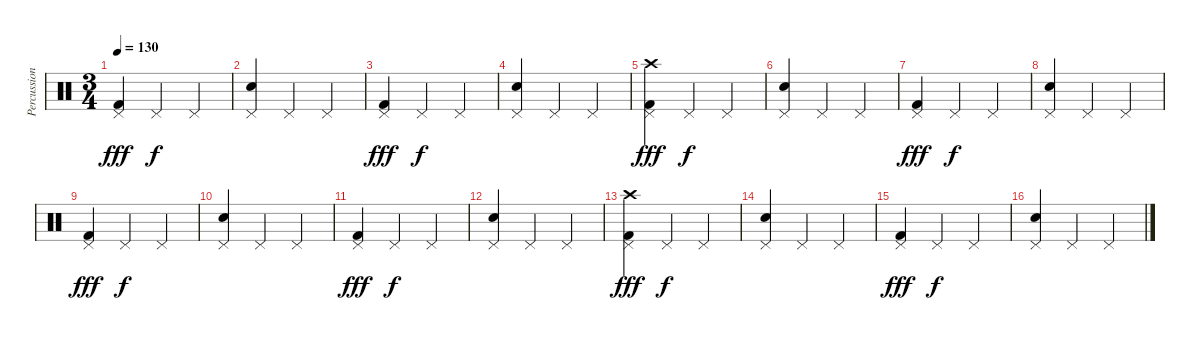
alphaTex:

\track ("Percussion" "Percussion") {instrument percussion}
\staff {score}
\articulation defaults
\ts (3 4)
\tempo 130
\clef neutral
\ks c
("Pedal Hi-Hat (hit)" "Kick (hit) 2").4{dy fff} "Pedal Hi-Hat (hit)".4{dy f} "Pedal Hi-Hat (hit)".4 |
("Pedal Hi-Hat (hit)" "Electric Snare (hit)").4 "Pedal Hi-Hat (hit)".4 "Pedal Hi-Hat (hit)".4 |
("Pedal Hi-Hat (hit)" "Kick (hit) 2").4{dy fff} "Pedal Hi-Hat (hit)".4{dy f} "Pedal Hi-Hat (hit)".4 |
("Pedal Hi-Hat (hit)" "Electric Snare (hit)").4 "Pedal Hi-Hat (hit)".4 "Pedal Hi-Hat (hit)".4 |
("Crash high (hit)" "Pedal Hi-Hat (hit)" "Kick (hit) 2").4{dy fff} "Pedal Hi-Hat (hit)".4{dy f} "Pedal Hi-Hat (hit)".4 |
("Pedal Hi-Hat (hit)" "Electric Snare (hit)").4 "Pedal Hi-Hat (hit)".4 "Pedal Hi-Hat (hit)".4 |
("Pedal Hi-Hat (hit)" "Kick (hit) 2").4{dy fff} "Pedal Hi-Hat (hit)".4{dy f} "Pedal Hi-Hat (hit)".4 |
("Pedal Hi-Hat (hit)" "Electric Snare (hit)").4 "Pedal Hi-Hat (hit)".4 "Pedal Hi-Hat (hit)".4 |
("Pedal Hi-Hat (hit)" "Kick (hit) 2").4{dy fff} "Pedal Hi-Hat (hit)".4{dy f} "Pedal Hi-Hat (hit)".4 |
("Pedal Hi-Hat (hit)" "Electric Snare (hit)").4 "Pedal Hi-Hat (hit)".4 "Pedal Hi-Hat (hit)".4 |
("Pedal Hi-Hat (hit)" "Kick (hit) 2").4{dy fff} "Pedal Hi-Hat (hit)".4{dy f} "Pedal Hi-Hat (hit)".4 |
("Pedal Hi-Hat (hit)" "Electric Snare (hit)").4 "Pedal Hi-Hat (hit)".4 "Pedal Hi-Hat (hit)".4 |
("Crash high (hit)" "Pedal Hi-Hat (hit)" "Kick (hit) 2").4{dy fff} "Pedal Hi-Hat (hit)".4{dy f} "Pedal Hi-Hat (hit)".4 |
("Pedal Hi-Hat (hit)" "Electric Snare (hit)").4 "Pedal Hi-Hat (hit)".4 "Pedal Hi-Hat (hit)".4 |
("Pedal Hi-Hat (hit)" "Kick (hit) 2").4{dy fff} "Pedal Hi-Hat (hit)".4{dy f} "Pedal Hi-Hat (hit)".4 |
("Pedal Hi-Hat (hit)" "Electric Snare (hit)").4 "Pedal Hi-Hat (hit)".4 "Pedal Hi-Hat (hit)".4
